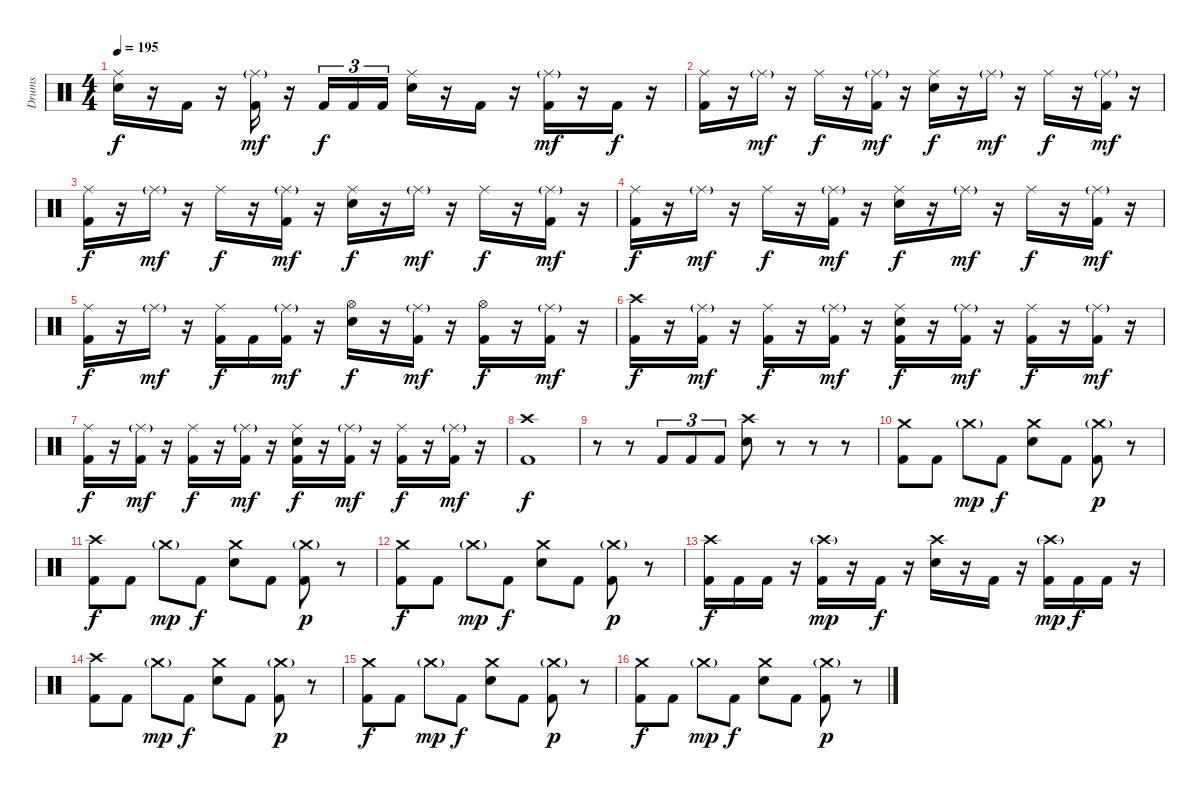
\track ("Drums" "Drums") {instrument percussion}
\staff {score}
\articulation defaults
\ts (4 4)
\tempo 195
\clef neutral
\ks c
("Ride (middle)" "Snare (hit) 2").16{dy f} r.16 "Kick (hit) 2".16 r.16 ("Ride (middle)"{g} "Kick (hit) 2").16{dy mf} r.16 "Kick (hit) 2".16{tu (3 2) dy f} "Kick (hit) 2".16{tu (3 2)} "Kick (hit) 2".16{tu (3 2)} ("Ride (middle)" "Snare (hit) 2").16 r.16 "Kick (hit) 2".16 r.16 ("Ride (middle)"{g} "Kick (hit) 2").16{dy mf} r.16 "Kick (hit) 2".16{dy f} r.16 |
("Ride (middle)" "Kick (hit) 2").16 r.16 "Ride (middle)"{g}.16{dy mf} r.16 "Ride (middle)".16{dy f} r.16 ("Ride (middle)"{g} "Kick (hit) 2").16{dy mf} r.16 ("Ride (middle)" "Snare (hit) 2").16{dy f} r.16 "Ride (middle)"{g}.16{dy mf} r.16 "Ride (middle)".16{dy f} r.16 ("Ride (middle)"{g} "Kick (hit) 2").16{dy mf} r.16 |
("Ride (middle)" "Kick (hit) 2").16{dy f} r.16 "Ride (middle)"{g}.16{dy mf} r.16 "Ride (middle)".16{dy f} r.16 ("Ride (middle)"{g} "Kick (hit) 2").16{dy mf} r.16 ("Ride (middle)" "Snare (hit) 2").16{dy f} r.16 "Ride (middle)"{g}.16{dy mf} r.16 "Ride (middle)".16{dy f} r.16 ("Ride (middle)"{g} "Kick (hit) 2").16{dy mf} r.16 |
("Ride (middle)" "Kick (hit) 2").16{dy f} r.16 "Ride (middle)"{g}.16{dy mf} r.16 "Ride (middle)".16{dy f} r.16 ("Ride (middle)"{g} "Kick (hit) 2").16{dy mf} r.16 ("Ride (middle)" "Snare (hit) 2").16{dy f} r.16 "Ride (middle)"{g}.16{dy mf} r.16 "Ride (middle)".16{dy f} r.16 ("Ride (middle)"{g} "Kick (hit) 2").16{dy mf} r.16 |
("Ride (middle)" "Kick (hit) 2").16{dy f} r.16 "Ride (middle)"{g}.16{dy mf} r.16 ("Ride (middle)" "Kick (hit) 2").16{dy f} "Kick (hit) 2".16 ("Ride (middle)"{g} "Kick (hit) 2").16{dy mf} r.16 ("Hi-Hat (open)" "Snare (hit) 2").16{dy f} r.16 ("Ride (middle)"{g} "Kick (hit) 2").16{dy mf} r.16 ("Hi-Hat (open)" "Kick (hit) 2").16{dy f} r.16 ("Ride (middle)"{g} "Kick (hit) 2").16{dy mf} r.16 |
("Crash high (hit)" "Kick (hit) 2").16{dy f} r.16 ("Ride (middle)"{g} "Kick (hit) 2").16{dy mf} r.16 ("Ride (middle)" "Kick (hit) 2").16{dy f} r.16 ("Ride (middle)"{g} "Kick (hit) 2").16{dy mf} r.16 ("Ride (middle)" "Snare (hit) 2" "Kick (hit) 2").16{dy f} r.16 ("Ride (middle)"{g} "Kick (hit) 2").16{dy mf} r.16 ("Ride (middle)" "Kick (hit) 2").16{dy f} r.16 ("Ride (middle)"{g} "Kick (hit) 2").16{dy mf} r.16 |
("Ride (middle)" "Kick (hit) 2").16{dy f} r.16 ("Ride (middle)"{g} "Kick (hit) 2").16{dy mf} r.16 ("Ride (middle)" "Kick (hit) 2").16{dy f} r.16 ("Ride (middle)"{g} "Kick (hit) 2").16{dy mf} r.16 ("Ride (middle)" "Snare (hit) 2" "Kick (hit) 2").16{dy f} r.16 ("Ride (middle)"{g} "Kick (hit) 2").16{dy mf} r.16 ("Ride (middle)" "Kick (hit) 2").16{dy f} r.16 ("Ride (middle)"{g} "Kick (hit) 2").16{dy mf} r.16 |
("Crash high (hit)" "Kick (hit) 2").1{dy f} |
r.8 r.8 "Kick (hit) 2".8{tu (3 2)} "Kick (hit) 2".8{tu (3 2)} "Kick (hit) 2".8{tu (3 2)} ("Crash high (hit)" "Snare (hit) 2").8 r.8 r.8 r.8 |
("Crash medium (hit)" "Kick (hit) 2").8 "Kick (hit) 2".8 "Crash medium (hit)"{g}.8{dy mp} "Kick (hit) 2".8{dy f} ("Crash medium (hit)" "Snare (hit) 2").8 "Kick (hit) 2".8 ("Crash medium (hit)"{g} "Kick (hit) 2").8{dy p} r.8 |
("Crash high (hit)" "Kick (hit) 2").8{dy f} "Kick (hit) 2".8 "Crash medium (hit)"{g}.8{dy mp} "Kick (hit) 2".8{dy f} ("Crash medium (hit)" "Snare (hit) 2").8 "Kick (hit) 2".8 ("Crash medium (hit)"{g} "Kick (hit) 2").8{dy p} r.8 |
("Crash medium (hit)" "Kick (hit) 2").8{dy f} "Kick (hit) 2".8 "Crash medium (hit)"{g}.8{dy mp} "Kick (hit) 2".8{dy f} ("Crash medium (hit)" "Snare (hit) 2").8 "Kick (hit) 2".8 ("Crash medium (hit)"{g} "Kick (hit) 2").8{dy p} r.8 |
("Crash high (hit)" "Kick (hit) 2").16{dy f} "Kick (hit) 2".16 "Kick (hit) 2".16 r.16 ("Crash high (hit)"{g} "Kick (hit) 2").16{dy mp} r.16 "Kick (hit) 2".16{dy f} r.16 ("Crash high (hit)" "Snare (hit) 2").16 r.16 "Kick (hit) 2".16 r.16 ("Crash high (hit)"{g} "Kick (hit) 2").16{dy mp} "Kick (hit) 2".16{dy f} "Kick (hit) 2".16 r.16 |
("Crash high (hit)" "Kick (hit) 2").8 "Kick (hit) 2".8 "Crash medium (hit)"{g}.8{dy mp} "Kick (hit) 2".8{dy f} ("Crash medium (hit)" "Snare (hit) 2").8 "Kick (hit) 2".8 ("Crash medium (hit)"{g} "Kick (hit) 2").8{dy p} r.8 |
("Crash medium (hit)" "Kick (hit) 2").8{dy f} "Kick (hit) 2".8 "Crash medium (hit)"{g}.8{dy mp} "Kick (hit) 2".8{dy f} ("Crash medium (hit)" "Snare (hit) 2").8 "Kick (hit) 2".8 ("Crash medium (hit)"{g} "Kick (hit) 2").8{dy p} r.8 |
("Crash medium (hit)" "Kick (hit) 2").8{dy f} "Kick (hit) 2".8 "Crash medium (hit)"{g}.8{dy mp} "Kick (hit) 2".8{dy f} ("Crash medium (hit)" "Snare (hit) 2").8 "Kick (hit) 2".8 ("Crash medium (hit)"{g} "Kick (hit) 2").8{dy p} r.8
